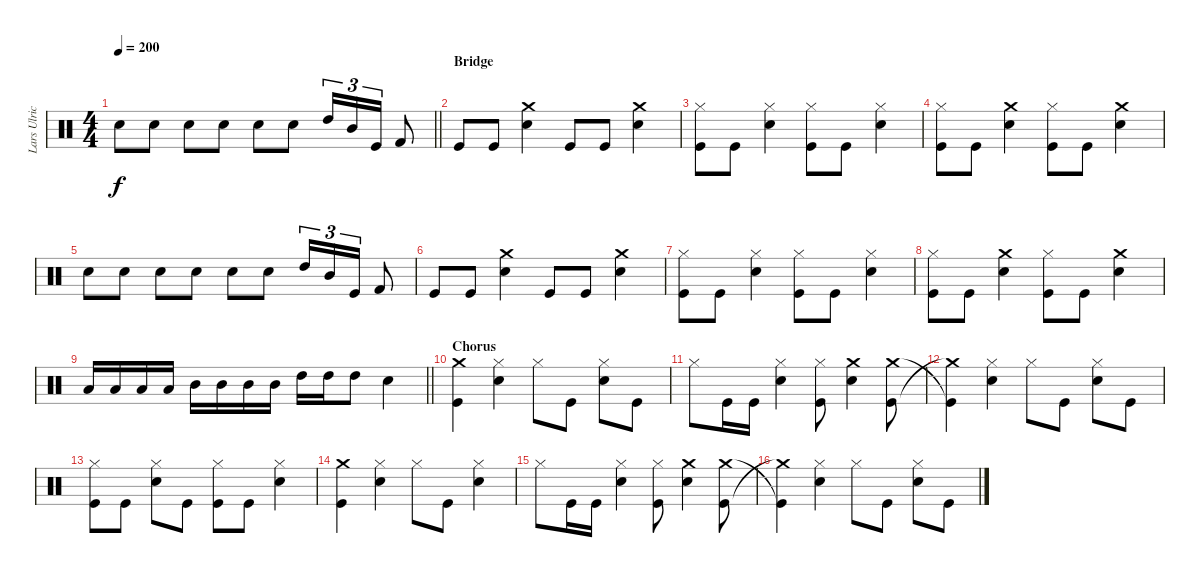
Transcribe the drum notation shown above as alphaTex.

\track ("Lars Ulrich (Drums)" "Lars Ulric") {instrument percussion}
\staff {score}
\articulation defaults
\ts (4 4)
\tempo 200
\clef neutral
\barLineRight lightlight
\ks c "Snare (hit) 2".8{dy f} "Snare (hit) 2".8 "Snare (hit) 2".8 "Snare (hit) 2".8 "Snare (hit) 2".8 "Snare (hit) 2".8 "High Tom (hit)".16{tu (3 2)} "Mid Tom (hit)".16{tu (3 2)} "Kick (hit)".16{tu (3 2)} "Kick (hit) 2".8
|
\section ("" "Bridge")
"Kick (hit)".8 "Kick (hit)".8 ("Crash medium (hit)" "Snare (hit) 2").4 "Kick (hit)".8 "Kick (hit)".8 ("Crash medium (hit)" "Snare (hit) 2").4 |
("Kick (hit)" "Hi-Hat (closed)").8 "Kick (hit)".8 ("Snare (hit) 2" "Hi-Hat (closed)").4 ("Kick (hit)" "Hi-Hat (closed)").8 "Kick (hit)".8 ("Snare (hit) 2" "Hi-Hat (closed)").4 |
("Kick (hit)" "Hi-Hat (closed)").8 "Kick (hit)".8 ("Snare (hit) 2" "Crash medium (hit)").4 ("Kick (hit)" "Hi-Hat (closed)").8 "Kick (hit)".8 ("Crash medium (hit)" "Snare (hit) 2").4 |
"Snare (hit) 2".8 "Snare (hit) 2".8 "Snare (hit) 2".8 "Snare (hit) 2".8 "Snare (hit) 2".8 "Snare (hit) 2".8 "High Tom (hit)".16{tu (3 2)} "Mid Tom (hit)".16{tu (3 2)} "Kick (hit)".16{tu (3 2)} "Kick (hit) 2".8 |
"Kick (hit)".8 "Kick (hit)".8 ("Crash medium (hit)" "Snare (hit) 2").4 "Kick (hit)".8 "Kick (hit)".8 ("Crash medium (hit)" "Snare (hit) 2").4 |
("Kick (hit)" "Hi-Hat (closed)").8 "Kick (hit)".8 ("Snare (hit) 2" "Hi-Hat (closed)").4 ("Kick (hit)" "Hi-Hat (closed)").8 "Kick (hit)".8 ("Snare (hit) 2" "Hi-Hat (closed)").4 |
("Kick (hit)" "Hi-Hat (closed)").8 "Kick (hit)".8 ("Snare (hit) 2" "Crash medium (hit)").4 ("Kick (hit)" "Hi-Hat (closed)").8 "Kick (hit)".8 ("Crash medium (hit)" "Snare (hit) 2").4 |
\barLineRight lightlight "Low Tom (hit)".16 "Low Tom (hit)".16 "Low Tom (hit)".16 "Low Tom (hit)".16 "Mid Tom (hit)".16 "Mid Tom (hit)".16 "Mid Tom (hit)".16 "Mid Tom (hit)".16 "High Tom (hit)".16 "High Tom (hit)".16 "High Tom (hit)".8 "Snare (hit) 2".4
|
\section ("" "Chorus")
("Kick (hit)" "Crash medium (hit)").4 ("Hi-Hat (closed)" "Snare (hit) 2").4 "Hi-Hat (closed)".8 "Kick (hit)".8 ("Snare (hit) 2" "Hi-Hat (closed)").8 "Kick (hit)".8 |
"Hi-Hat (closed)".8 "Kick (hit)".16 "Kick (hit)".16 ("Snare (hit) 2" "Hi-Hat (closed)").4 ("Kick (hit)" "Hi-Hat (closed)").8 ("Snare (hit) 2" "Crash medium (hit)").4 ("Crash medium (hit)" "Kick (hit)").8 |
("Kick (hit)"{t} "Crash medium (hit)"{t}).4 ("Hi-Hat (closed)" "Snare (hit) 2").4 "Hi-Hat (closed)".8 "Kick (hit)".8 ("Snare (hit) 2" "Hi-Hat (closed)").8 "Kick (hit)".8 |
("Hi-Hat (closed)" "Kick (hit)").8 "Kick (hit)".8 ("Snare (hit) 2" "Hi-Hat (closed)").8 "Kick (hit)".8 ("Hi-Hat (closed)" "Kick (hit)").8 "Kick (hit)".8 ("Snare (hit) 2" "Hi-Hat (closed)").4 |
("Kick (hit)" "Crash medium (hit)").4 ("Hi-Hat (closed)" "Snare (hit) 2").4 "Hi-Hat (closed)".8 "Kick (hit)".8 ("Snare (hit) 2" "Hi-Hat (closed)").4 |
"Hi-Hat (closed)".8 "Kick (hit)".16 "Kick (hit)".16 ("Snare (hit) 2" "Hi-Hat (closed)").4 ("Kick (hit)" "Hi-Hat (closed)").8 ("Snare (hit) 2" "Crash medium (hit)").4 ("Crash medium (hit)" "Kick (hit)").8 |
("Kick (hit)"{t} "Crash medium (hit)"{t}).4 ("Hi-Hat (closed)" "Snare (hit) 2").4 "Hi-Hat (closed)".8 "Kick (hit)".8 ("Snare (hit) 2" "Hi-Hat (closed)").8 "Kick (hit)".8
